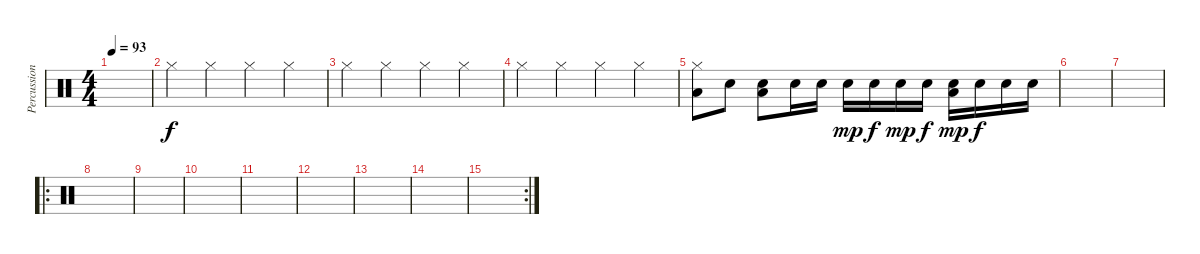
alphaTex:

\track ("Percussion" "Percussion") {instrument percussion}
\staff {score}
\articulation defaults
\ts (4 4)
\tempo 93
\clef neutral
\ks c
|
"Hi-Hat (closed)".4 "Hi-Hat (closed)".4 "Hi-Hat (closed)".4 "Hi-Hat (closed)".4 |
"Hi-Hat (closed)".4 "Hi-Hat (closed)".4 "Hi-Hat (closed)".4 "Hi-Hat (closed)".4 |
"Hi-Hat (closed)".4 "Hi-Hat (closed)".4 "Hi-Hat (closed)".4 "Hi-Hat (closed)".4 |
("Hi-Hat (closed)" "Low Floor Tom (hit)").8 "Snare (hit) 2".8 ("Snare (hit) 2" "Low Floor Tom (hit)").8 "Snare (hit) 2".16 "Snare (hit) 2".16 "Snare (hit) 2".16{dy mp} "Snare (hit) 2".16{dy f} "Snare (hit) 2".16{dy mp} "Snare (hit) 2".16{dy f} ("Snare (hit) 2" "Low Floor Tom (hit)").16{dy mp} "Snare (hit) 2".16{dy f} "Snare (hit) 2".16 "Snare (hit) 2".16 |
|
|
\ro
|
|
|
|
|
|
|
\rc 2
